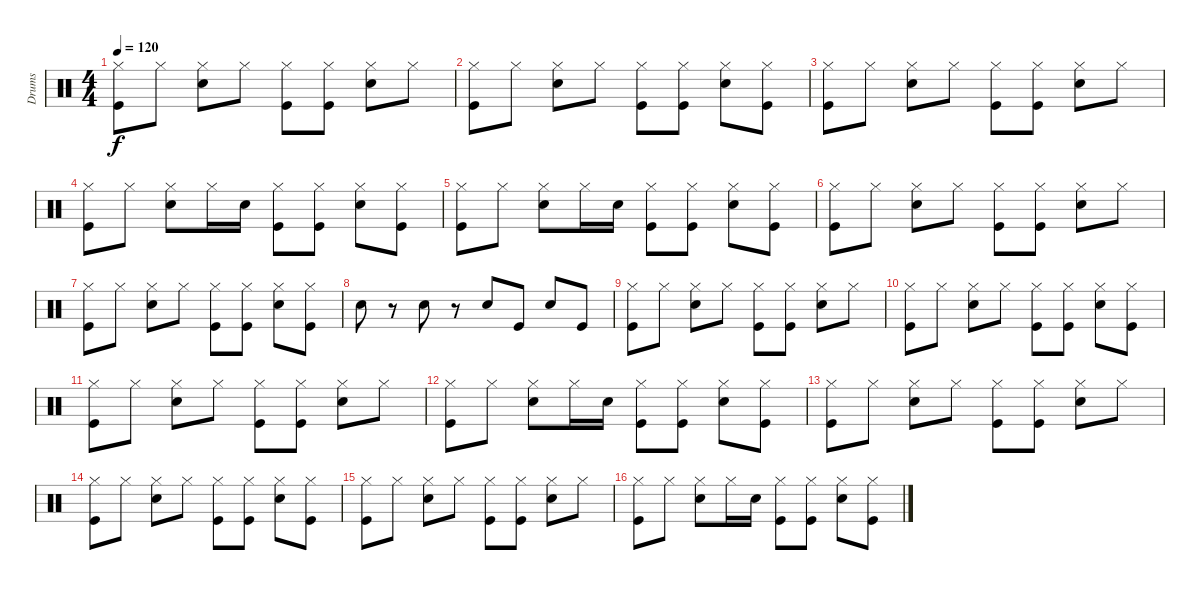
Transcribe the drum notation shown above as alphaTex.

\track ("Drums" "Drums") {instrument percussion}
\staff {score}
\articulation defaults
\ts (4 4)
\tempo 120
\clef neutral
\ks c
("Hi-Hat (closed)" "Kick (hit)").8{dy f} "Hi-Hat (closed)".8 ("Hi-Hat (closed)" "Snare (hit) 2").8 "Hi-Hat (closed)".8 ("Hi-Hat (closed)" "Kick (hit)").8 ("Hi-Hat (closed)" "Kick (hit)").8 ("Hi-Hat (closed)" "Snare (hit) 2").8 "Hi-Hat (closed)".8 |
("Hi-Hat (closed)" "Kick (hit)").8 "Hi-Hat (closed)".8 ("Hi-Hat (closed)" "Snare (hit) 2").8 "Hi-Hat (closed)".8 ("Hi-Hat (closed)" "Kick (hit)").8 ("Hi-Hat (closed)" "Kick (hit)").8 ("Hi-Hat (closed)" "Snare (hit) 2").8 ("Hi-Hat (closed)" "Kick (hit)").8 |
("Hi-Hat (closed)" "Kick (hit)").8 "Hi-Hat (closed)".8 ("Hi-Hat (closed)" "Snare (hit) 2").8 "Hi-Hat (closed)".8 ("Hi-Hat (closed)" "Kick (hit)").8 ("Hi-Hat (closed)" "Kick (hit)").8 ("Hi-Hat (closed)" "Snare (hit) 2").8 "Hi-Hat (closed)".8 |
("Hi-Hat (closed)" "Kick (hit)").8 "Hi-Hat (closed)".8 ("Hi-Hat (closed)" "Snare (hit) 2").8 "Hi-Hat (closed)".16 "Snare (hit) 2".16 ("Hi-Hat (closed)" "Kick (hit)").8 ("Hi-Hat (closed)" "Kick (hit)").8 ("Hi-Hat (closed)" "Snare (hit) 2").8 ("Hi-Hat (closed)" "Kick (hit)").8 |
("Hi-Hat (closed)" "Kick (hit)").8 "Hi-Hat (closed)".8 ("Hi-Hat (closed)" "Snare (hit) 2").8 "Hi-Hat (closed)".16 "Snare (hit) 2".16 ("Hi-Hat (closed)" "Kick (hit)").8 ("Hi-Hat (closed)" "Kick (hit)").8 ("Hi-Hat (closed)" "Snare (hit) 2").8 ("Hi-Hat (closed)" "Kick (hit)").8 |
("Hi-Hat (closed)" "Kick (hit)").8 "Hi-Hat (closed)".8 ("Hi-Hat (closed)" "Snare (hit) 2").8 "Hi-Hat (closed)".8 ("Hi-Hat (closed)" "Kick (hit)").8 ("Hi-Hat (closed)" "Kick (hit)").8 ("Hi-Hat (closed)" "Snare (hit) 2").8 "Hi-Hat (closed)".8 |
("Hi-Hat (closed)" "Kick (hit)").8 "Hi-Hat (closed)".8 ("Hi-Hat (closed)" "Snare (hit) 2").8 "Hi-Hat (closed)".8 ("Hi-Hat (closed)" "Kick (hit)").8 ("Hi-Hat (closed)" "Kick (hit)").8 ("Hi-Hat (closed)" "Snare (hit) 2").8 ("Hi-Hat (closed)" "Kick (hit)").8 |
"Snare (hit) 2".8 r.8 "Snare (hit) 2".8 r.8 "Snare (hit) 2".8 "Kick (hit)".8 "Snare (hit) 2".8 "Kick (hit)".8 |
("Hi-Hat (closed)" "Kick (hit)").8 "Hi-Hat (closed)".8 ("Hi-Hat (closed)" "Snare (hit) 2").8 "Hi-Hat (closed)".8 ("Hi-Hat (closed)" "Kick (hit)").8 ("Hi-Hat (closed)" "Kick (hit)").8 ("Hi-Hat (closed)" "Snare (hit) 2").8 "Hi-Hat (closed)".8 |
("Hi-Hat (closed)" "Kick (hit)").8 "Hi-Hat (closed)".8 ("Hi-Hat (closed)" "Snare (hit) 2").8 "Hi-Hat (closed)".8 ("Hi-Hat (closed)" "Kick (hit)").8 ("Hi-Hat (closed)" "Kick (hit)").8 ("Hi-Hat (closed)" "Snare (hit) 2").8 ("Hi-Hat (closed)" "Kick (hit)").8 |
("Hi-Hat (closed)" "Kick (hit)").8 "Hi-Hat (closed)".8 ("Hi-Hat (closed)" "Snare (hit) 2").8 "Hi-Hat (closed)".8 ("Hi-Hat (closed)" "Kick (hit)").8 ("Hi-Hat (closed)" "Kick (hit)").8 ("Hi-Hat (closed)" "Snare (hit) 2").8 "Hi-Hat (closed)".8 |
("Hi-Hat (closed)" "Kick (hit)").8 "Hi-Hat (closed)".8 ("Hi-Hat (closed)" "Snare (hit) 2").8 "Hi-Hat (closed)".16 "Snare (hit) 2".16 ("Hi-Hat (closed)" "Kick (hit)").8 ("Hi-Hat (closed)" "Kick (hit)").8 ("Hi-Hat (closed)" "Snare (hit) 2").8 ("Hi-Hat (closed)" "Kick (hit)").8 |
("Hi-Hat (closed)" "Kick (hit)").8 "Hi-Hat (closed)".8 ("Hi-Hat (closed)" "Snare (hit) 2").8 "Hi-Hat (closed)".8 ("Hi-Hat (closed)" "Kick (hit)").8 ("Hi-Hat (closed)" "Kick (hit)").8 ("Hi-Hat (closed)" "Snare (hit) 2").8 "Hi-Hat (closed)".8 |
("Hi-Hat (closed)" "Kick (hit)").8 "Hi-Hat (closed)".8 ("Hi-Hat (closed)" "Snare (hit) 2").8 "Hi-Hat (closed)".8 ("Hi-Hat (closed)" "Kick (hit)").8 ("Hi-Hat (closed)" "Kick (hit)").8 ("Hi-Hat (closed)" "Snare (hit) 2").8 ("Hi-Hat (closed)" "Kick (hit)").8 |
("Hi-Hat (closed)" "Kick (hit)").8 "Hi-Hat (closed)".8 ("Hi-Hat (closed)" "Snare (hit) 2").8 "Hi-Hat (closed)".8 ("Hi-Hat (closed)" "Kick (hit)").8 ("Hi-Hat (closed)" "Kick (hit)").8 ("Hi-Hat (closed)" "Snare (hit) 2").8 "Hi-Hat (closed)".8 |
("Hi-Hat (closed)" "Kick (hit)").8 "Hi-Hat (closed)".8 ("Hi-Hat (closed)" "Snare (hit) 2").8 "Hi-Hat (closed)".16 "Snare (hit) 2".16 ("Hi-Hat (closed)" "Kick (hit)").8 ("Hi-Hat (closed)" "Kick (hit)").8 ("Hi-Hat (closed)" "Snare (hit) 2").8 ("Hi-Hat (closed)" "Kick (hit)").8
